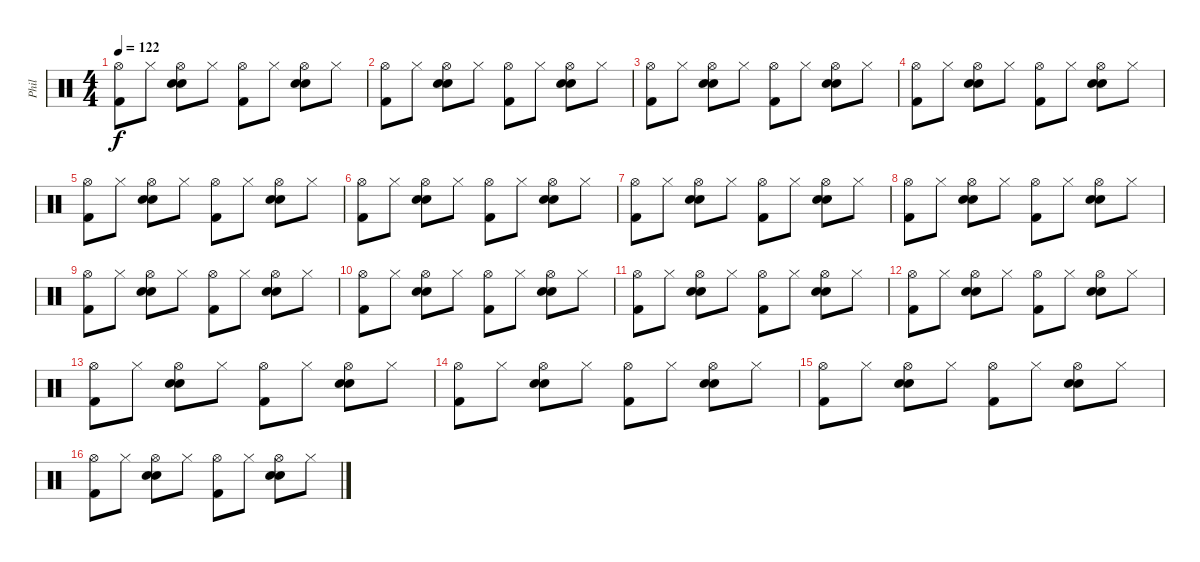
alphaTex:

\track ("Phil" "Phil") {instrument percussion}
\staff {score}
\articulation defaults
\ts (4 4)
\tempo 122
\clef neutral
\ks c
("Hi-Hat (open)" "Kick (hit) 2").8{dy f} "Hi-Hat (closed)".8 ("Hi-Hat (open)" "Snare (hit) 2" "Electric Snare (hit)").8 "Hi-Hat (closed)".8 ("Hi-Hat (open)" "Kick (hit) 2").8 "Hi-Hat (closed)".8 ("Hi-Hat (open)" "Snare (hit) 2" "Electric Snare (hit)").8 "Hi-Hat (closed)".8 |
("Hi-Hat (open)" "Kick (hit) 2").8 "Hi-Hat (closed)".8 ("Hi-Hat (open)" "Snare (hit) 2" "Electric Snare (hit)").8 "Hi-Hat (closed)".8 ("Hi-Hat (open)" "Kick (hit) 2").8 "Hi-Hat (closed)".8 ("Hi-Hat (open)" "Snare (hit) 2" "Electric Snare (hit)").8 "Hi-Hat (closed)".8 |
("Hi-Hat (open)" "Kick (hit) 2").8 "Hi-Hat (closed)".8 ("Hi-Hat (open)" "Snare (hit) 2" "Electric Snare (hit)").8 "Hi-Hat (closed)".8 ("Hi-Hat (open)" "Kick (hit) 2").8 "Hi-Hat (closed)".8 ("Hi-Hat (open)" "Snare (hit) 2" "Electric Snare (hit)").8 "Hi-Hat (closed)".8 |
("Hi-Hat (open)" "Kick (hit) 2").8 "Hi-Hat (closed)".8 ("Hi-Hat (open)" "Snare (hit) 2" "Electric Snare (hit)").8 "Hi-Hat (closed)".8 ("Hi-Hat (open)" "Kick (hit) 2").8 "Hi-Hat (closed)".8 ("Hi-Hat (open)" "Snare (hit) 2" "Electric Snare (hit)").8 "Hi-Hat (closed)".8 |
("Hi-Hat (open)" "Kick (hit) 2").8 "Hi-Hat (closed)".8 ("Hi-Hat (open)" "Snare (hit) 2" "Electric Snare (hit)").8 "Hi-Hat (closed)".8 ("Hi-Hat (open)" "Kick (hit) 2").8 "Hi-Hat (closed)".8 ("Hi-Hat (open)" "Snare (hit) 2" "Electric Snare (hit)").8 "Hi-Hat (closed)".8 |
("Hi-Hat (open)" "Kick (hit) 2").8 "Hi-Hat (closed)".8 ("Hi-Hat (open)" "Snare (hit) 2" "Electric Snare (hit)").8 "Hi-Hat (closed)".8 ("Hi-Hat (open)" "Kick (hit) 2").8 "Hi-Hat (closed)".8 ("Hi-Hat (open)" "Snare (hit) 2" "Electric Snare (hit)").8 "Hi-Hat (closed)".8 |
("Hi-Hat (open)" "Kick (hit) 2").8 "Hi-Hat (closed)".8 ("Hi-Hat (open)" "Snare (hit) 2" "Electric Snare (hit)").8 "Hi-Hat (closed)".8 ("Hi-Hat (open)" "Kick (hit) 2").8 "Hi-Hat (closed)".8 ("Hi-Hat (open)" "Snare (hit) 2" "Electric Snare (hit)").8 "Hi-Hat (closed)".8 |
("Hi-Hat (open)" "Kick (hit) 2").8 "Hi-Hat (closed)".8 ("Hi-Hat (open)" "Snare (hit) 2" "Electric Snare (hit)").8 "Hi-Hat (closed)".8 ("Hi-Hat (open)" "Kick (hit) 2").8 "Hi-Hat (closed)".8 ("Hi-Hat (open)" "Snare (hit) 2" "Electric Snare (hit)").8 "Hi-Hat (closed)".8 |
("Hi-Hat (open)" "Kick (hit) 2").8 "Hi-Hat (closed)".8 ("Hi-Hat (open)" "Snare (hit) 2" "Electric Snare (hit)").8 "Hi-Hat (closed)".8 ("Hi-Hat (open)" "Kick (hit) 2").8 "Hi-Hat (closed)".8 ("Hi-Hat (open)" "Snare (hit) 2" "Electric Snare (hit)").8 "Hi-Hat (closed)".8 |
("Hi-Hat (open)" "Kick (hit) 2").8 "Hi-Hat (closed)".8 ("Hi-Hat (open)" "Snare (hit) 2" "Electric Snare (hit)").8 "Hi-Hat (closed)".8 ("Hi-Hat (open)" "Kick (hit) 2").8 "Hi-Hat (closed)".8 ("Hi-Hat (open)" "Snare (hit) 2" "Electric Snare (hit)").8 "Hi-Hat (closed)".8 |
("Hi-Hat (open)" "Kick (hit) 2").8 "Hi-Hat (closed)".8 ("Hi-Hat (open)" "Snare (hit) 2" "Electric Snare (hit)").8 "Hi-Hat (closed)".8 ("Hi-Hat (open)" "Kick (hit) 2").8 "Hi-Hat (closed)".8 ("Hi-Hat (open)" "Snare (hit) 2" "Electric Snare (hit)").8 "Hi-Hat (closed)".8 |
("Hi-Hat (open)" "Kick (hit) 2").8 "Hi-Hat (closed)".8 ("Hi-Hat (open)" "Snare (hit) 2" "Electric Snare (hit)").8 "Hi-Hat (closed)".8 ("Hi-Hat (open)" "Kick (hit) 2").8 "Hi-Hat (closed)".8 ("Hi-Hat (open)" "Snare (hit) 2" "Electric Snare (hit)").8 "Hi-Hat (closed)".8 |
("Hi-Hat (open)" "Kick (hit) 2").8 "Hi-Hat (closed)".8 ("Hi-Hat (open)" "Snare (hit) 2" "Electric Snare (hit)").8 "Hi-Hat (closed)".8 ("Hi-Hat (open)" "Kick (hit) 2").8 "Hi-Hat (closed)".8 ("Hi-Hat (open)" "Snare (hit) 2" "Electric Snare (hit)").8 "Hi-Hat (closed)".8 |
("Hi-Hat (open)" "Kick (hit) 2").8 "Hi-Hat (closed)".8 ("Hi-Hat (open)" "Snare (hit) 2" "Electric Snare (hit)").8 "Hi-Hat (closed)".8 ("Hi-Hat (open)" "Kick (hit) 2").8 "Hi-Hat (closed)".8 ("Hi-Hat (open)" "Snare (hit) 2" "Electric Snare (hit)").8 "Hi-Hat (closed)".8 |
("Hi-Hat (open)" "Kick (hit) 2").8 "Hi-Hat (closed)".8 ("Hi-Hat (open)" "Snare (hit) 2" "Electric Snare (hit)").8 "Hi-Hat (closed)".8 ("Hi-Hat (open)" "Kick (hit) 2").8 "Hi-Hat (closed)".8 ("Hi-Hat (open)" "Snare (hit) 2" "Electric Snare (hit)").8 "Hi-Hat (closed)".8 |
("Hi-Hat (open)" "Kick (hit) 2").8 "Hi-Hat (closed)".8 ("Hi-Hat (open)" "Snare (hit) 2" "Electric Snare (hit)").8 "Hi-Hat (closed)".8 ("Hi-Hat (open)" "Kick (hit) 2").8 "Hi-Hat (closed)".8 ("Hi-Hat (open)" "Snare (hit) 2" "Electric Snare (hit)").8 "Hi-Hat (closed)".8
